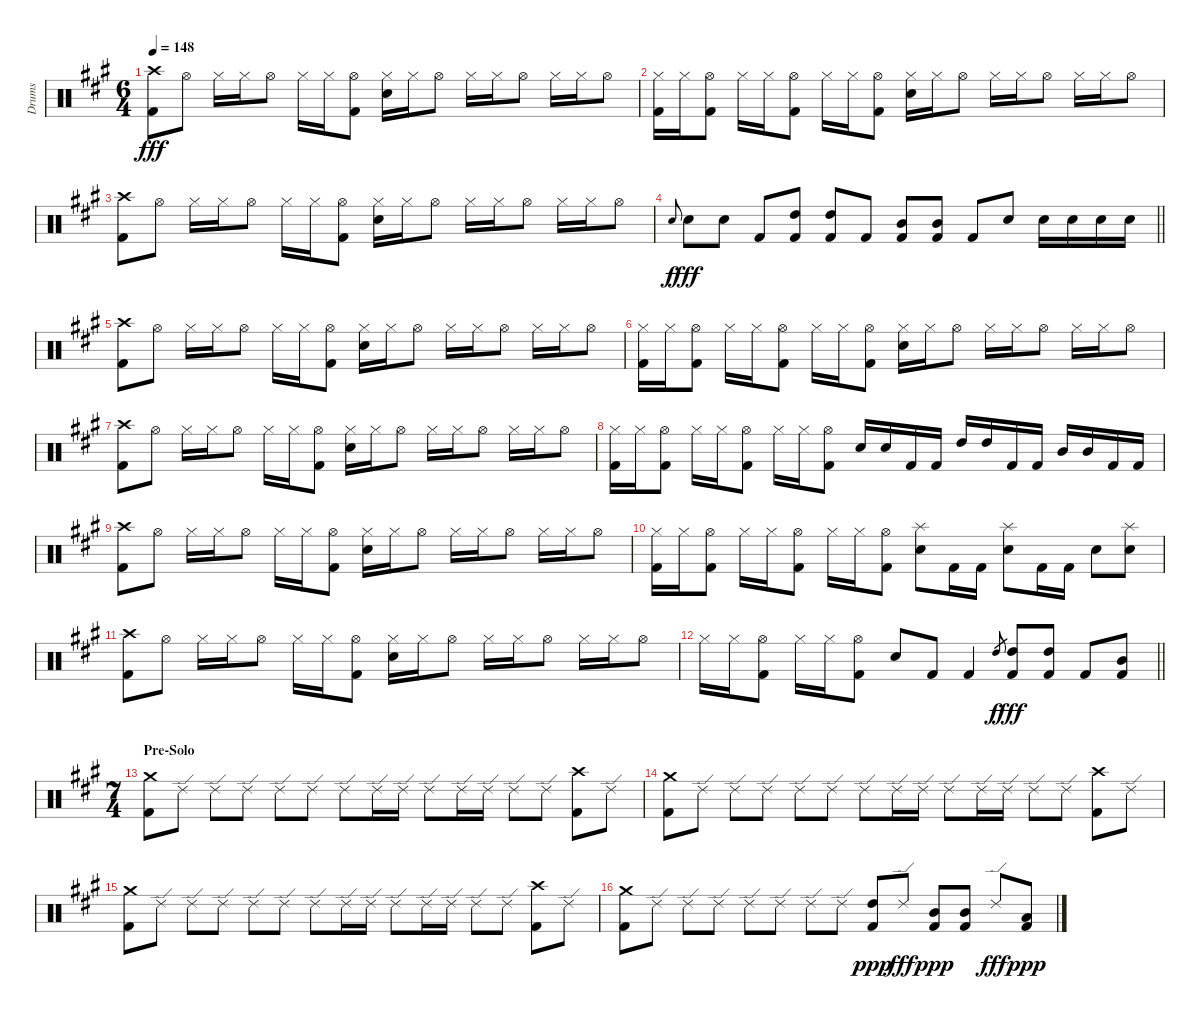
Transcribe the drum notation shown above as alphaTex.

\track ("Drums" "Drums") {instrument percussion}
\staff {score}
\articulation defaults
\ts (6 4)
\tempo 148
\clef neutral
\ks a
("Crash high (hit)" "Kick (hit) 2").8{dy fff} "Hi-Hat (open)".8 "Hi-Hat (closed)".16 "Hi-Hat (closed)".16 "Hi-Hat (open)".8 "Hi-Hat (closed)".16 "Hi-Hat (closed)".16 ("Hi-Hat (open)" "Kick (hit) 2").8 ("Hi-Hat (closed)" "Electric Snare (hit)").16 "Hi-Hat (closed)".16 "Hi-Hat (open)".8 "Hi-Hat (closed)".16 "Hi-Hat (closed)".16 "Hi-Hat (open)".8 "Hi-Hat (closed)".16 "Hi-Hat (closed)".16 "Hi-Hat (open)".8 |
("Hi-Hat (closed)" "Kick (hit) 2").16 "Hi-Hat (closed)".16 ("Hi-Hat (open)" "Kick (hit) 2").8 "Hi-Hat (closed)".16 "Hi-Hat (closed)".16 ("Hi-Hat (open)" "Kick (hit) 2").8 "Hi-Hat (closed)".16 "Hi-Hat (closed)".16 ("Hi-Hat (open)" "Kick (hit) 2").8 ("Hi-Hat (closed)" "Electric Snare (hit)").16 "Hi-Hat (closed)".16 "Hi-Hat (open)".8 "Hi-Hat (closed)".16 "Hi-Hat (closed)".16 "Hi-Hat (open)".8 "Hi-Hat (closed)".16 "Hi-Hat (closed)".16 "Hi-Hat (open)".8 |
("Crash high (hit)" "Kick (hit) 2").8 "Hi-Hat (open)".8 "Hi-Hat (closed)".16 "Hi-Hat (closed)".16 "Hi-Hat (open)".8 "Hi-Hat (closed)".16 "Hi-Hat (closed)".16 ("Hi-Hat (open)" "Kick (hit) 2").8 ("Hi-Hat (closed)" "Electric Snare (hit)").16 "Hi-Hat (closed)".16 "Hi-Hat (open)".8 "Hi-Hat (closed)".16 "Hi-Hat (closed)".16 "Hi-Hat (open)".8 "Hi-Hat (closed)".16 "Hi-Hat (closed)".16 "Hi-Hat (open)".8 |
\barLineRight lightlight "Electric Snare (hit)".8{gr onbeat dy f} "Electric Snare (hit)".8{dy fff} "Electric Snare (hit)".8 "Kick (hit) 2".8
("High Tom (hit)" "Kick (hit) 2").8 ("High Tom (hit)" "Kick (hit) 2").8 "Kick (hit) 2".8 ("Mid Tom (hit)" "Kick (hit) 2").8 ("Mid Tom (hit)" "Kick (hit) 2").8 "Kick (hit) 2".8 "Electric Snare (hit)".8 "Electric Snare (hit)".16 "Electric Snare (hit)".16 "Electric Snare (hit)".16 "Electric Snare (hit)".16 |
("Crash high (hit)" "Kick (hit) 2").8 "Hi-Hat (open)".8 "Hi-Hat (closed)".16 "Hi-Hat (closed)".16 "Hi-Hat (open)".8 "Hi-Hat (closed)".16 "Hi-Hat (closed)".16 ("Hi-Hat (open)" "Kick (hit) 2").8 ("Hi-Hat (closed)" "Electric Snare (hit)").16 "Hi-Hat (closed)".16 "Hi-Hat (open)".8 "Hi-Hat (closed)".16 "Hi-Hat (closed)".16 "Hi-Hat (open)".8 "Hi-Hat (closed)".16 "Hi-Hat (closed)".16 "Hi-Hat (open)".8 |
("Hi-Hat (closed)" "Kick (hit) 2").16 "Hi-Hat (closed)".16 ("Hi-Hat (open)" "Kick (hit) 2").8 "Hi-Hat (closed)".16 "Hi-Hat (closed)".16 ("Hi-Hat (open)" "Kick (hit) 2").8 "Hi-Hat (closed)".16 "Hi-Hat (closed)".16 ("Hi-Hat (open)" "Kick (hit) 2").8 ("Hi-Hat (closed)" "Electric Snare (hit)").16 "Hi-Hat (closed)".16 "Hi-Hat (open)".8 "Hi-Hat (closed)".16 "Hi-Hat (closed)".16 "Hi-Hat (open)".8 "Hi-Hat (closed)".16 "Hi-Hat (closed)".16 "Hi-Hat (open)".8 |
("Crash high (hit)" "Kick (hit) 2").8 "Hi-Hat (open)".8 "Hi-Hat (closed)".16 "Hi-Hat (closed)".16 "Hi-Hat (open)".8 "Hi-Hat (closed)".16 "Hi-Hat (closed)".16 ("Hi-Hat (open)" "Kick (hit) 2").8 ("Hi-Hat (closed)" "Electric Snare (hit)").16 "Hi-Hat (closed)".16 "Hi-Hat (open)".8 "Hi-Hat (closed)".16 "Hi-Hat (closed)".16 "Hi-Hat (open)".8 "Hi-Hat (closed)".16 "Hi-Hat (closed)".16 "Hi-Hat (open)".8 |
("Hi-Hat (closed)" "Kick (hit) 2").16 "Hi-Hat (closed)".16 ("Hi-Hat (open)" "Kick (hit) 2").8 "Hi-Hat (closed)".16 "Hi-Hat (closed)".16 ("Hi-Hat (open)" "Kick (hit) 2").8 "Hi-Hat (closed)".16 "Hi-Hat (closed)".16 ("Hi-Hat (open)" "Kick (hit) 2").8 "Electric Snare (hit)".16 "Electric Snare (hit)".16 "Kick (hit) 2".16 "Kick (hit) 2".16 "High Tom (hit)".16 "High Tom (hit)".16 "Kick (hit) 2".16 "Kick (hit) 2".16 "Mid Tom (hit)".16 "Mid Tom (hit)".16 "Kick (hit) 2".16 "Kick (hit) 2".16 |
("Crash high (hit)" "Kick (hit) 2").8 "Hi-Hat (open)".8 "Hi-Hat (closed)".16 "Hi-Hat (closed)".16 "Hi-Hat (open)".8 "Hi-Hat (closed)".16 "Hi-Hat (closed)".16 ("Hi-Hat (open)" "Kick (hit) 2").8 ("Hi-Hat (closed)" "Electric Snare (hit)").16 "Hi-Hat (closed)".16 "Hi-Hat (open)".8 "Hi-Hat (closed)".16 "Hi-Hat (closed)".16 "Hi-Hat (open)".8 "Hi-Hat (closed)".16 "Hi-Hat (closed)".16 "Hi-Hat (open)".8 |
("Hi-Hat (closed)" "Kick (hit) 2").16 "Hi-Hat (closed)".16 ("Hi-Hat (open)" "Kick (hit) 2").8 "Hi-Hat (closed)".16 "Hi-Hat (closed)".16 ("Hi-Hat (open)" "Kick (hit) 2").8 "Hi-Hat (closed)".16 "Hi-Hat (closed)".16 ("Hi-Hat (open)" "Kick (hit) 2").8 ("Splash (hit)" "Electric Snare (hit)").8 "Kick (hit) 2".16 "Kick (hit) 2".16 ("Splash (hit)" "Electric Snare (hit)").8 "Kick (hit) 2".16 "Kick (hit) 2".16 "Electric Snare (hit)".8 ("Splash (hit)" "Electric Snare (hit)").8 |
("Crash high (hit)" "Kick (hit) 2").8 "Hi-Hat (open)".8 "Hi-Hat (closed)".16 "Hi-Hat (closed)".16 "Hi-Hat (open)".8 "Hi-Hat (closed)".16 "Hi-Hat (closed)".16 ("Hi-Hat (open)" "Kick (hit) 2").8 ("Hi-Hat (closed)" "Electric Snare (hit)").16 "Hi-Hat (closed)".16 "Hi-Hat (open)".8 "Hi-Hat (closed)".16 "Hi-Hat (closed)".16 "Hi-Hat (open)".8 "Hi-Hat (closed)".16 "Hi-Hat (closed)".16 "Hi-Hat (open)".8 |
\barLineRight lightlight "Hi-Hat (closed)".16 "Hi-Hat (closed)".16
("Hi-Hat (open)" "Kick (hit) 2").8 "Hi-Hat (closed)".16 "Hi-Hat (closed)".16 ("Hi-Hat (open)" "Kick (hit) 2").8 "Electric Snare (hit)".8 "Kick (hit) 2".8 "Kick (hit) 2".4 "High Tom (hit)".8{gr dy f} ("High Tom (hit)" "Kick (hit) 2").8{dy fff} ("High Tom (hit)" "Kick (hit) 2").8 "Kick (hit) 2".8 ("Mid Tom (hit)" "Kick (hit) 2").8 |
\ts (7 4)
\section ("" "Pre-Solo")
("Crash medium (hit)" "Kick (hit) 2").8 "Ride (edge) 2".8 "Ride (edge) 2".8 "Ride (edge) 2".8 "Ride (edge) 2".8 "Ride (edge) 2".8 "Ride (edge) 2".8 "Ride (edge) 2".16 "Ride (edge) 2".16 "Ride (edge) 2".8 "Ride (edge) 2".16 "Ride (edge) 2".16 "Ride (edge) 2".8 "Ride (edge) 2".8 ("Crash high (hit)" "Kick (hit) 2").8 "Ride (edge) 2".8 |
("Crash medium (hit)" "Kick (hit) 2").8 "Ride (edge) 2".8 "Ride (edge) 2".8 "Ride (edge) 2".8 "Ride (edge) 2".8 "Ride (edge) 2".8 "Ride (edge) 2".8 "Ride (edge) 2".16 "Ride (edge) 2".16 "Ride (edge) 2".8 "Ride (edge) 2".16 "Ride (edge) 2".16 "Ride (edge) 2".8 "Ride (edge) 2".8 ("Crash high (hit)" "Kick (hit) 2").8 "Ride (edge) 2".8 |
("Crash medium (hit)" "Kick (hit) 2").8 "Ride (edge) 2".8 "Ride (edge) 2".8 "Ride (edge) 2".8 "Ride (edge) 2".8 "Ride (edge) 2".8 "Ride (edge) 2".8 "Ride (edge) 2".16 "Ride (edge) 2".16 "Ride (edge) 2".8 "Ride (edge) 2".16 "Ride (edge) 2".16 "Ride (edge) 2".8 "Ride (edge) 2".8 ("Crash high (hit)" "Kick (hit) 2").8 "Ride (edge) 2".8 |
("Crash medium (hit)" "Kick (hit) 2").8 "Ride (edge) 2".8 "Ride (edge) 2".8 "Ride (edge) 2".8 "Ride (edge) 2".8 "Ride (edge) 2".8 "Ride (edge) 2".8 "Ride (edge) 2".8 ("High Tom (hit)" "Kick (hit) 2").8{dy ppp} "Ride (edge) 2".8{dy fff} ("Mid Tom (hit)" "Kick (hit) 2").8{dy ppp} ("Mid Tom (hit)" "Kick (hit) 2").8 "Ride (edge) 2".8{dy fff} ("Low Tom (hit)" "Kick (hit) 2").8{dy ppp}
